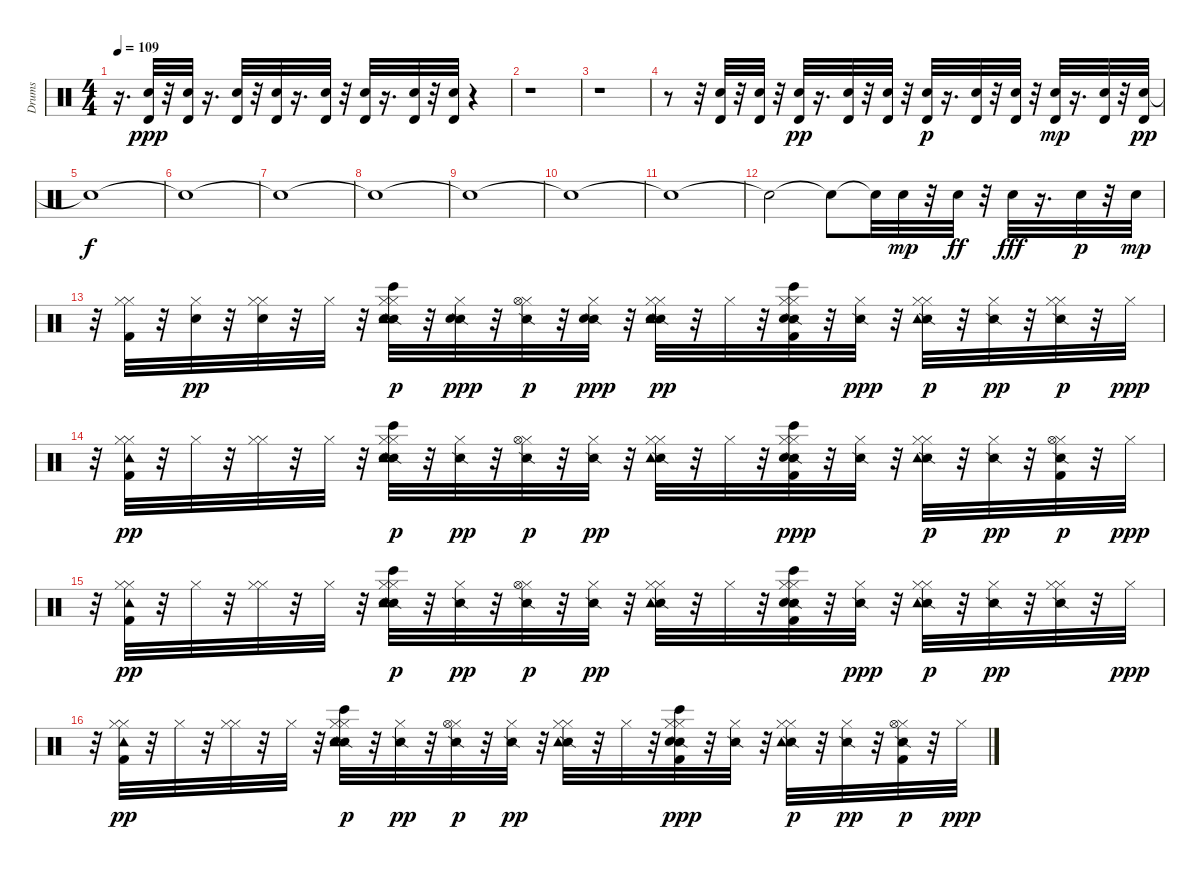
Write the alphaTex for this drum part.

\track ("Drums" "Drums") {instrument percussion}
\staff {score}
\articulation defaults
\ts (4 4)
\tempo 109
\clef neutral
\ks c
r.16{d dy mp} ("Electric Snare (hit)" "Timbale high (hit)").32{dy ppp} r.32 ("Electric Snare (hit)" "Timbale high (hit)").32 r.16{d} ("Electric Snare (hit)" "Timbale high (hit)").32 r.32 ("Electric Snare (hit)" "Timbale high (hit)").32 r.16{d} ("Electric Snare (hit)" "Timbale high (hit)").32 r.32 ("Electric Snare (hit)" "Timbale high (hit)").32 r.16{d} ("Electric Snare (hit)" "Timbale high (hit)").32 r.32 ("Electric Snare (hit)" "Timbale high (hit)").32 r.4 |
r.1 |
r.1 |
r.8 r.32 ("Electric Snare (hit)" "Timbale high (hit)").32 r.32 ("Electric Snare (hit)" "Timbale high (hit)").32 r.32 ("Electric Snare (hit)" "Timbale high (hit)").32{dy pp} r.16{d} ("Electric Snare (hit)" "Timbale high (hit)").32 r.32 ("Electric Snare (hit)" "Timbale high (hit)").32 r.32 ("Electric Snare (hit)" "Timbale high (hit)").32{dy p} r.16{d} ("Electric Snare (hit)" "Timbale high (hit)").32 r.32 ("Electric Snare (hit)" "Timbale high (hit)").32 r.32 ("Electric Snare (hit)" "Timbale high (hit)").32{dy mp} r.16{d} ("Electric Snare (hit)" "Timbale high (hit)").32 r.32 ("Electric Snare (hit)" "Timbale high (hit)").32{dy pp} |
"Snare (hit)"{t}.1{dy f} |
"Snare (hit)"{t}.1 |
"Snare (hit)"{t}.1 |
"Snare (hit)"{t}.1 |
"Snare (hit)"{t}.1 |
"Snare (hit)"{t}.1 |
"Snare (hit)"{t}.1 |
"Snare (hit)"{t}.2 "Snare (hit)"{t}.8 "Snare (hit)"{t}.32 "Electric Snare (hit)".32{dy mp} r.32 "Electric Snare (hit)".32{dy ff} r.32 "Electric Snare (hit)".32{dy fff} r.16{d} "Electric Snare (hit)".32{dy p} r.32 "Electric Snare (hit)".32{dy mp} |
r.32 ("Kick (hit) 2" "Hi-Hat (closed)" "Hi-Hat (closed)").32 r.32 ("Hi-Hat (closed)" "Electric Snare (hit)").32{dy pp} r.32 ("Hi-Hat (closed)" "Electric Snare (hit)" "Hi-Hat (closed)").32 r.32 "Hi-Hat (closed)".32 r.32 ("Hi-Hat (closed)" "Bongo High (hit)" "Snare (side stick) 2" "Electric Snare (hit)" "Hi-Hat (closed)" "Tambourine (hit)").32{dy p} r.32 ("Hi-Hat (closed)" "Snare (side stick) 2" "Electric Snare (hit)").32{dy ppp} r.32 ("Hi-Hat (closed)" "Snare (side stick) 2" "Hi-Hat (open)").32{dy p} r.32 ("Hi-Hat (closed)" "Snare (side stick) 2" "Electric Snare (hit)").32{dy ppp} r.32 ("Hi-Hat (closed)" "Snare (side stick) 2" "Electric Snare (hit)" "Hi-Hat (closed)" "Tambourine (hit)").32{dy pp} r.32 "Hi-Hat (closed)".32 r.32 ("Kick (hit) 2" "Hi-Hat (closed)" "Bongo High (hit)" "Snare (side stick) 2" "Electric Snare (hit)" "Hi-Hat (closed)").32 r.32 ("Hi-Hat (closed)" "Snare (side stick) 2").32{dy ppp} r.32 ("Hi-Hat (closed)" "Snare (side stick) 2" "Hi-Hat (closed)" "Tambourine (hit)").32{dy p} r.32 ("Hi-Hat (closed)" "Snare (side stick) 2").32{dy pp} r.32 ("Hi-Hat (closed)" "Snare (side stick) 2" "Hi-Hat (closed)").32{dy p} r.32 "Hi-Hat (closed)".32{dy ppp} |
r.32 ("Kick (hit) 2" "Hi-Hat (closed)" "Hi-Hat (closed)" "Tambourine (hit)").32{dy pp} r.32 "Hi-Hat (closed)".32 r.32 ("Hi-Hat (closed)" "Hi-Hat (closed)").32 r.32 "Hi-Hat (closed)".32 r.32 ("Hi-Hat (closed)" "Bongo High (hit)" "Snare (side stick) 2" "Electric Snare (hit)" "Hi-Hat (closed)" "Tambourine (hit)").32{dy p} r.32 ("Hi-Hat (closed)" "Snare (side stick) 2").32{dy pp} r.32 ("Hi-Hat (closed)" "Snare (side stick) 2" "Hi-Hat (open)").32{dy p} r.32 ("Hi-Hat (closed)" "Snare (side stick) 2").32{dy pp} r.32 ("Hi-Hat (closed)" "Snare (side stick) 2" "Hi-Hat (closed)" "Tambourine (hit)").32 r.32 "Hi-Hat (closed)".32 r.32 ("Kick (hit) 2" "Hi-Hat (closed)" "Bongo High (hit)" "Snare (side stick) 2" "Electric Snare (hit)" "Hi-Hat (closed)").32{dy ppp} r.32 ("Hi-Hat (closed)" "Snare (side stick) 2").32 r.32 ("Hi-Hat (closed)" "Snare (side stick) 2" "Hi-Hat (closed)" "Tambourine (hit)").32{dy p} r.32 ("Hi-Hat (closed)" "Snare (side stick) 2").32{dy pp} r.32 ("Kick (hit) 2" "Hi-Hat (closed)" "Snare (side stick) 2" "Hi-Hat (open)").32{dy p} r.32 "Hi-Hat (closed)".32{dy ppp} |
r.32 ("Kick (hit) 2" "Hi-Hat (closed)" "Hi-Hat (closed)" "Tambourine (hit)").32{dy pp} r.32 "Hi-Hat (closed)".32 r.32 ("Hi-Hat (closed)" "Hi-Hat (closed)").32 r.32 "Hi-Hat (closed)".32 r.32 ("Hi-Hat (closed)" "Bongo High (hit)" "Snare (side stick) 2" "Electric Snare (hit)" "Hi-Hat (closed)" "Tambourine (hit)").32{dy p} r.32 ("Hi-Hat (closed)" "Snare (side stick) 2").32{dy pp} r.32 ("Hi-Hat (closed)" "Snare (side stick) 2" "Hi-Hat (open)").32{dy p} r.32 ("Hi-Hat (closed)" "Snare (side stick) 2").32{dy pp} r.32 ("Hi-Hat (closed)" "Snare (side stick) 2" "Hi-Hat (closed)" "Tambourine (hit)").32 r.32 "Hi-Hat (closed)".32 r.32 ("Kick (hit) 2" "Hi-Hat (closed)" "Bongo High (hit)" "Snare (side stick) 2" "Electric Snare (hit)" "Hi-Hat (closed)").32 r.32 ("Hi-Hat (closed)" "Snare (side stick) 2").32{dy ppp} r.32 ("Hi-Hat (closed)" "Snare (side stick) 2" "Hi-Hat (closed)" "Tambourine (hit)").32{dy p} r.32 ("Hi-Hat (closed)" "Snare (side stick) 2").32{dy pp} r.32 ("Hi-Hat (closed)" "Snare (side stick) 2" "Hi-Hat (closed)").32 r.32 "Hi-Hat (closed)".32{dy ppp} |
r.32 ("Kick (hit) 2" "Hi-Hat (closed)" "Hi-Hat (closed)" "Tambourine (hit)").32{dy pp} r.32 "Hi-Hat (closed)".32 r.32 ("Hi-Hat (closed)" "Hi-Hat (closed)").32 r.32 "Hi-Hat (closed)".32 r.32 ("Hi-Hat (closed)" "Bongo High (hit)" "Snare (side stick) 2" "Electric Snare (hit)" "Hi-Hat (closed)" "Tambourine (hit)").32{dy p} r.32 ("Hi-Hat (closed)" "Snare (side stick) 2").32{dy pp} r.32 ("Hi-Hat (closed)" "Snare (side stick) 2" "Hi-Hat (open)").32{dy p} r.32 ("Hi-Hat (closed)" "Snare (side stick) 2").32{dy pp} r.32 ("Hi-Hat (closed)" "Snare (side stick) 2" "Hi-Hat (closed)" "Tambourine (hit)").32 r.32 "Hi-Hat (closed)".32 r.32 ("Kick (hit) 2" "Hi-Hat (closed)" "Bongo High (hit)" "Snare (side stick) 2" "Electric Snare (hit)" "Hi-Hat (closed)").32{dy ppp} r.32 ("Hi-Hat (closed)" "Snare (side stick) 2").32 r.32 ("Hi-Hat (closed)" "Snare (side stick) 2" "Hi-Hat (closed)" "Tambourine (hit)").32{dy p} r.32 ("Hi-Hat (closed)" "Snare (side stick) 2").32{dy pp} r.32 ("Kick (hit) 2" "Hi-Hat (closed)" "Snare (side stick) 2" "Hi-Hat (open)").32{dy p} r.32 "Hi-Hat (closed)".32{dy ppp}
